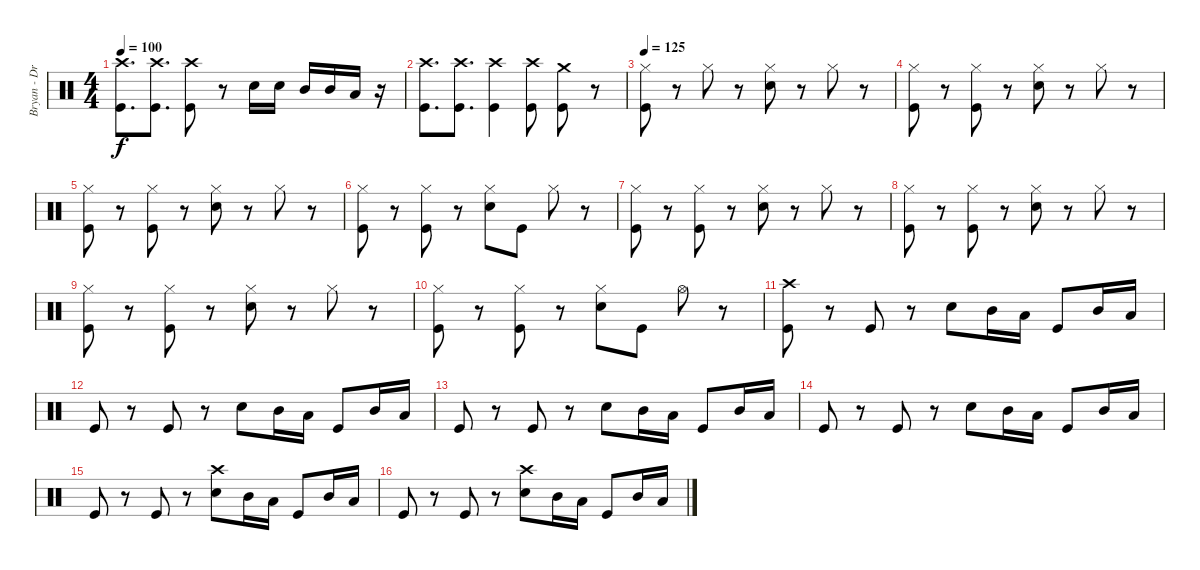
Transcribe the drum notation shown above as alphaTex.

\track ("Bryan - Drums" "Bryan - Dr") {instrument percussion}
\staff {score}
\articulation defaults
\ts (4 4)
\tempo 100
\clef neutral
\ks c
("Crash high (hit)" "Kick (hit)").8{d dy f} ("Crash high (hit)" "Kick (hit)").8{d} ("Crash high (hit)" "Kick (hit)").8 r.8 "Snare (hit) 2".16 "Snare (hit) 2".16 "Mid Tom (hit)".16 "Mid Tom (hit)".16 "Low Tom (hit)".16 r.16 |
("Crash high (hit)" "Kick (hit)").8{d} ("Crash high (hit)" "Kick (hit)").8{d} ("Crash high (hit)" "Kick (hit)").4 ("Crash high (hit)" "Kick (hit)").8 ("Crash medium (hit)" "Kick (hit)").8 r.8 |
\tempo 125
("Hi-Hat (closed)" "Kick (hit)").8 r.8 "Hi-Hat (closed)".8 r.8 ("Hi-Hat (closed)" "Electric Snare (hit)").8 r.8 "Hi-Hat (closed)".8 r.8 |
("Hi-Hat (closed)" "Kick (hit)").8 r.8 ("Hi-Hat (closed)" "Kick (hit)").8 r.8 ("Hi-Hat (closed)" "Electric Snare (hit)").8 r.8 "Hi-Hat (closed)".8 r.8 |
("Hi-Hat (closed)" "Kick (hit)").8 r.8 ("Hi-Hat (closed)" "Kick (hit)").8 r.8 ("Hi-Hat (closed)" "Electric Snare (hit)").8 r.8 "Hi-Hat (closed)".8 r.8 |
("Hi-Hat (closed)" "Kick (hit)").8 r.8 ("Hi-Hat (closed)" "Kick (hit)").8 r.8 ("Hi-Hat (closed)" "Electric Snare (hit)").8 "Kick (hit)".8 "Hi-Hat (closed)".8 r.8 |
("Hi-Hat (closed)" "Kick (hit)").8 r.8 ("Hi-Hat (closed)" "Kick (hit)").8 r.8 ("Hi-Hat (closed)" "Electric Snare (hit)").8 r.8 "Hi-Hat (closed)".8 r.8 |
("Hi-Hat (closed)" "Kick (hit)").8 r.8 ("Hi-Hat (closed)" "Kick (hit)").8 r.8 ("Hi-Hat (closed)" "Electric Snare (hit)").8 r.8 "Hi-Hat (closed)".8 r.8 |
("Hi-Hat (closed)" "Kick (hit)").8 r.8 ("Hi-Hat (closed)" "Kick (hit)").8 r.8 ("Hi-Hat (closed)" "Electric Snare (hit)").8 r.8 "Hi-Hat (closed)".8 r.8 |
("Hi-Hat (closed)" "Kick (hit)").8 r.8 ("Hi-Hat (closed)" "Kick (hit)").8 r.8 ("Hi-Hat (closed)" "Electric Snare (hit)").8 "Kick (hit)".8 "Hi-Hat (open)".8 r.8 |
("Crash high (hit)" "Kick (hit)").8 r.8 "Kick (hit)".8 r.8 "Snare (hit) 2".8 "Mid Tom (hit)".16 "Low Tom (hit)".16 "Kick (hit)".8 "Mid Tom (hit)".16 "Low Tom (hit)".16 |
"Kick (hit)".8 r.8 "Kick (hit)".8 r.8 "Snare (hit) 2".8 "Mid Tom (hit)".16 "Low Tom (hit)".16 "Kick (hit)".8 "Mid Tom (hit)".16 "Low Tom (hit)".16 |
"Kick (hit)".8 r.8 "Kick (hit)".8 r.8 "Snare (hit) 2".8 "Mid Tom (hit)".16 "Low Tom (hit)".16 "Kick (hit)".8 "Mid Tom (hit)".16 "Low Tom (hit)".16 |
"Kick (hit)".8 r.8 "Kick (hit)".8 r.8 "Snare (hit) 2".8 "Mid Tom (hit)".16 "Low Tom (hit)".16 "Kick (hit)".8 "Mid Tom (hit)".16 "Low Tom (hit)".16 |
"Kick (hit)".8 r.8 "Kick (hit)".8 r.8 ("Crash high (hit)" "Snare (hit) 2").8 "Mid Tom (hit)".16 "Low Tom (hit)".16 "Kick (hit)".8 "Mid Tom (hit)".16 "Low Tom (hit)".16 |
"Kick (hit)".8 r.8 "Kick (hit)".8 r.8 ("Crash high (hit)" "Snare (hit) 2").8 "Mid Tom (hit)".16 "Low Tom (hit)".16 "Kick (hit)".8 "Mid Tom (hit)".16 "Low Tom (hit)".16
